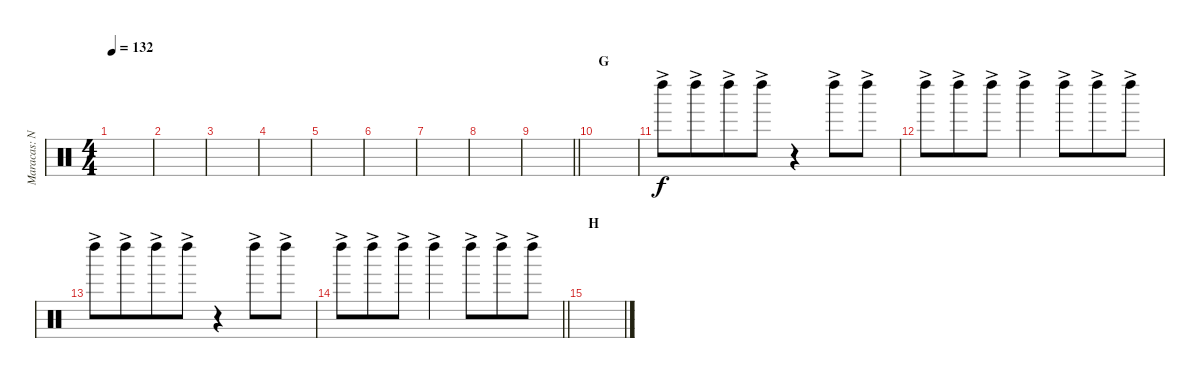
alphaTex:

\track ("Maracas: Nigel Ollson" "Maracas: N") {instrument percussion}
\staff {score}
\articulation defaults
\ts (4 4)
\tempo 132
\clef neutral
\ks c
|
|
|
|
|
|
|
|
\barLineRight lightlight
|
\section ("" "G")
|
"Left Maraca (hit)"{ac}.8 "Left Maraca (hit)"{ac}.8{beam merge} "Left Maraca (hit)"{ac}.8 "Left Maraca (hit)"{ac}.8 r.4 "Left Maraca (hit)"{ac}.8 "Left Maraca (hit)"{ac}.8 |
"Left Maraca (hit)"{ac}.8 "Left Maraca (hit)"{ac}.8{beam merge} "Left Maraca (hit)"{ac}.8 "Left Maraca (hit)"{ac}.4 "Left Maraca (hit)"{ac}.8{beam merge} "Left Maraca (hit)"{ac}.8 "Left Maraca (hit)"{ac}.8 |
"Left Maraca (hit)"{ac}.8 "Left Maraca (hit)"{ac}.8{beam merge} "Left Maraca (hit)"{ac}.8 "Left Maraca (hit)"{ac}.8 r.4 "Left Maraca (hit)"{ac}.8 "Left Maraca (hit)"{ac}.8 |
\barLineRight lightlight "Left Maraca (hit)"{ac}.8 "Left Maraca (hit)"{ac}.8{beam merge} "Left Maraca (hit)"{ac}.8 "Left Maraca (hit)"{ac}.4 "Left Maraca (hit)"{ac}.8{beam merge} "Left Maraca (hit)"{ac}.8 "Left Maraca (hit)"{ac}.8
|
\section ("" "H")
